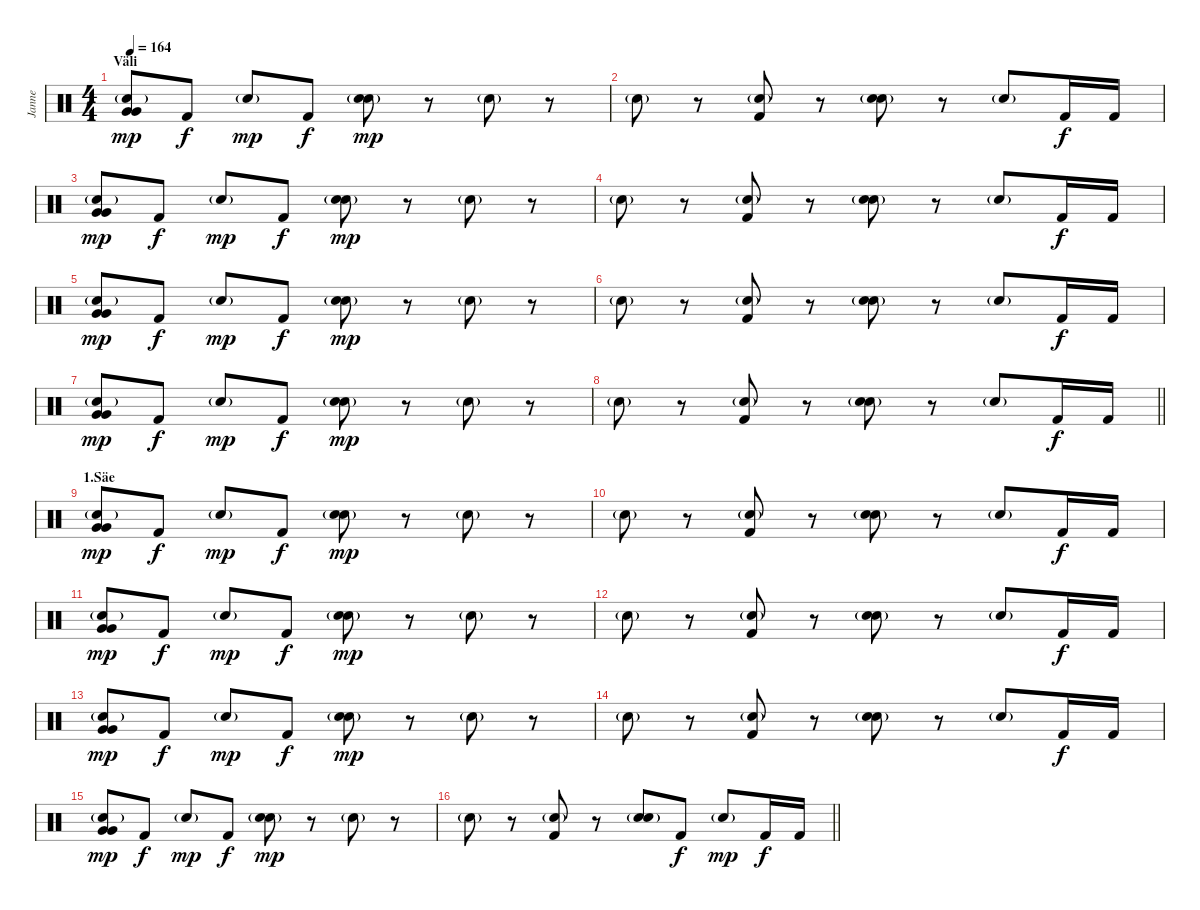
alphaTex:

\track ("Janne" "Janne") {instrument percussion}
\staff {score}
\articulation defaults
\ts (4 4)
\section ("" "Väli")
\tempo 164
\clef neutral
\ks c
("Electric Snare (hit)"{g} "Very Low Tom (hit)" "Very Low Tom (hit)").8{dy mp} "Kick (hit) 2".8{dy f} "Electric Snare (hit)"{g}.8{dy mp} "Kick (hit) 2".8{dy f} ("Electric Snare (hit)"{g} "Electric Snare (hit)").8{dy mp} r.8 "Electric Snare (hit)"{g}.8 r.8 |
"Electric Snare (hit)"{g}.8 r.8 ("Electric Snare (hit)"{g} "Kick (hit) 2").8 r.8 ("Electric Snare (hit)"{g} "Electric Snare (hit)").8 r.8 "Electric Snare (hit)"{g}.8 "Kick (hit) 2".16{dy f} "Kick (hit) 2".16 |
("Electric Snare (hit)"{g} "Very Low Tom (hit)" "Very Low Tom (hit)").8{dy mp} "Kick (hit) 2".8{dy f} "Electric Snare (hit)"{g}.8{dy mp} "Kick (hit) 2".8{dy f} ("Electric Snare (hit)"{g} "Electric Snare (hit)").8{dy mp} r.8 "Electric Snare (hit)"{g}.8 r.8 |
"Electric Snare (hit)"{g}.8 r.8 ("Electric Snare (hit)"{g} "Kick (hit) 2").8 r.8 ("Electric Snare (hit)"{g} "Electric Snare (hit)").8 r.8 "Electric Snare (hit)"{g}.8 "Kick (hit) 2".16{dy f} "Kick (hit) 2".16 |
("Electric Snare (hit)"{g} "Very Low Tom (hit)" "Very Low Tom (hit)").8{dy mp} "Kick (hit) 2".8{dy f} "Electric Snare (hit)"{g}.8{dy mp} "Kick (hit) 2".8{dy f} ("Electric Snare (hit)"{g} "Electric Snare (hit)").8{dy mp} r.8 "Electric Snare (hit)"{g}.8 r.8 |
"Electric Snare (hit)"{g}.8 r.8 ("Electric Snare (hit)"{g} "Kick (hit) 2").8 r.8 ("Electric Snare (hit)"{g} "Electric Snare (hit)").8 r.8 "Electric Snare (hit)"{g}.8 "Kick (hit) 2".16{dy f} "Kick (hit) 2".16 |
("Electric Snare (hit)"{g} "Very Low Tom (hit)" "Very Low Tom (hit)").8{dy mp} "Kick (hit) 2".8{dy f} "Electric Snare (hit)"{g}.8{dy mp} "Kick (hit) 2".8{dy f} ("Electric Snare (hit)"{g} "Electric Snare (hit)").8{dy mp} r.8 "Electric Snare (hit)"{g}.8 r.8 |
\barLineRight lightlight "Electric Snare (hit)"{g}.8
r.8 ("Electric Snare (hit)"{g} "Kick (hit) 2").8 r.8 ("Electric Snare (hit)"{g} "Electric Snare (hit)").8 r.8 "Electric Snare (hit)"{g}.8 "Kick (hit) 2".16{dy f} "Kick (hit) 2".16 |
\section ("" "1.Säe")
("Electric Snare (hit)"{g} "Very Low Tom (hit)" "Very Low Tom (hit)").8{dy mp} "Kick (hit) 2".8{dy f} "Electric Snare (hit)"{g}.8{dy mp} "Kick (hit) 2".8{dy f} ("Electric Snare (hit)"{g} "Electric Snare (hit)").8{dy mp} r.8 "Electric Snare (hit)"{g}.8 r.8 |
"Electric Snare (hit)"{g}.8 r.8 ("Electric Snare (hit)"{g} "Kick (hit) 2").8 r.8 ("Electric Snare (hit)"{g} "Electric Snare (hit)").8 r.8 "Electric Snare (hit)"{g}.8 "Kick (hit) 2".16{dy f} "Kick (hit) 2".16 |
("Electric Snare (hit)"{g} "Very Low Tom (hit)" "Very Low Tom (hit)").8{dy mp} "Kick (hit) 2".8{dy f} "Electric Snare (hit)"{g}.8{dy mp} "Kick (hit) 2".8{dy f} ("Electric Snare (hit)"{g} "Electric Snare (hit)").8{dy mp} r.8 "Electric Snare (hit)"{g}.8 r.8 |
"Electric Snare (hit)"{g}.8 r.8 ("Electric Snare (hit)"{g} "Kick (hit) 2").8 r.8 ("Electric Snare (hit)"{g} "Electric Snare (hit)").8 r.8 "Electric Snare (hit)"{g}.8 "Kick (hit) 2".16{dy f} "Kick (hit) 2".16 |
("Electric Snare (hit)"{g} "Very Low Tom (hit)" "Very Low Tom (hit)").8{dy mp} "Kick (hit) 2".8{dy f} "Electric Snare (hit)"{g}.8{dy mp} "Kick (hit) 2".8{dy f} ("Electric Snare (hit)"{g} "Electric Snare (hit)").8{dy mp} r.8 "Electric Snare (hit)"{g}.8 r.8 |
"Electric Snare (hit)"{g}.8 r.8 ("Electric Snare (hit)"{g} "Kick (hit) 2").8 r.8 ("Electric Snare (hit)"{g} "Electric Snare (hit)").8 r.8 "Electric Snare (hit)"{g}.8 "Kick (hit) 2".16{dy f} "Kick (hit) 2".16 |
("Electric Snare (hit)"{g} "Very Low Tom (hit)" "Very Low Tom (hit)").8{dy mp} "Kick (hit) 2".8{dy f} "Electric Snare (hit)"{g}.8{dy mp} "Kick (hit) 2".8{dy f} ("Electric Snare (hit)"{g} "Electric Snare (hit)").8{dy mp} r.8 "Electric Snare (hit)"{g}.8 r.8 |
\barLineRight lightlight "Electric Snare (hit)"{g}.8
r.8 ("Electric Snare (hit)"{g} "Kick (hit) 2").8 r.8 ("Electric Snare (hit)"{g} "Electric Snare (hit)").8 "Kick (hit) 2".8{dy f} "Electric Snare (hit)"{g}.8{dy mp} "Kick (hit) 2".16{dy f} "Kick (hit) 2".16
